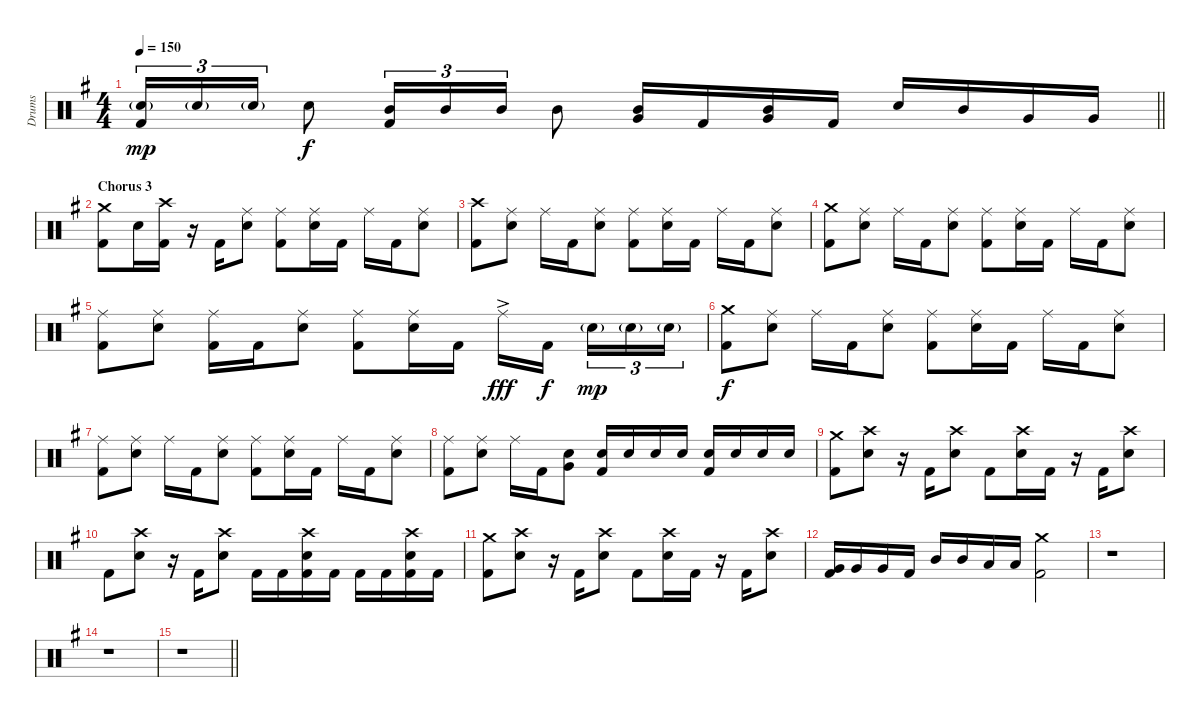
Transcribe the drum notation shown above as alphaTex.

\track ("Drums" "Drums") {instrument percussion}
\staff {score}
\articulation defaults
\ts (4 4)
\tempo 150
\clef neutral
\barLineRight lightlight
\ks eminor
("Electric Snare (hit)"{g} "Kick (hit) 2").16{tu (3 2) dy mp} "Electric Snare (hit)"{g}.16{tu (3 2)} "Electric Snare (hit)"{g}.16{tu (3 2)} "Electric Snare (hit)".8{dy f} ("Mid Tom (hit)" "Kick (hit) 2").16{tu (3 2)} "Mid Tom (hit)".16{tu (3 2)} "Mid Tom (hit)".16{tu (3 2)} "Mid Tom (hit)".8 ("Mid Tom (hit)" "Very Low Tom (hit)").16 "Kick (hit) 2".16 ("Mid Tom (hit)" "Very Low Tom (hit)").16 "Kick (hit) 2".16 "Electric Snare (hit)".16 "Mid Tom (hit)".16 "Very Low Tom (hit)".16 "Very Low Tom (hit)".16 |
\section ("" "Chorus 3")
("Crash medium (hit)" "Kick (hit) 2").8 "Electric Snare (hit)".16 ("Crash high (hit)" "Kick (hit) 2").16 r.16 "Kick (hit) 2".16 ("Ride (middle)" "Electric Snare (hit)").8 ("Ride (middle)" "Kick (hit) 2").8 ("Ride (middle)" "Electric Snare (hit)").16 "Kick (hit) 2".16 "Ride (middle)".16 "Kick (hit) 2".16 ("Ride (middle)" "Electric Snare (hit)").8 |
("Crash high (hit)" "Kick (hit) 2").8 ("Ride (middle)" "Electric Snare (hit)").8 "Ride (middle)".16 "Kick (hit) 2".16 ("Ride (middle)" "Electric Snare (hit)").8 ("Ride (middle)" "Kick (hit) 2").8 ("Ride (middle)" "Electric Snare (hit)").16 "Kick (hit) 2".16 "Ride (middle)".16 "Kick (hit) 2".16 ("Ride (middle)" "Electric Snare (hit)").8 |
("Crash medium (hit)" "Kick (hit) 2").8 ("Ride (middle)" "Electric Snare (hit)").8 "Ride (middle)".16 "Kick (hit) 2".16 ("Ride (middle)" "Electric Snare (hit)").8 ("Ride (middle)" "Kick (hit) 2").8 ("Ride (middle)" "Electric Snare (hit)").16 "Kick (hit) 2".16 "Ride (middle)".16 "Kick (hit) 2".16 ("Ride (middle)" "Electric Snare (hit)").8 |
("Ride (middle)" "Kick (hit) 2").8 ("Ride (middle)" "Electric Snare (hit)").8 ("Ride (middle)" "Kick (hit) 2").16 "Kick (hit) 2".16 ("Ride (middle)" "Electric Snare (hit)").8 ("Ride (middle)" "Kick (hit) 2").8 ("Ride (middle)" "Electric Snare (hit)").16 "Kick (hit) 2".16 "Ride (middle)"{ac}.16{dy fff} "Kick (hit) 2".16{dy f} "Electric Snare (hit)"{g}.16{tu (3 2) dy mp} "Electric Snare (hit)"{g}.16{tu (3 2)} "Electric Snare (hit)"{g}.16{tu (3 2)} |
("Crash medium (hit)" "Kick (hit) 2").8{dy f} ("Ride (middle)" "Electric Snare (hit)").8 "Ride (middle)".16 "Kick (hit) 2".16 ("Ride (middle)" "Electric Snare (hit)").8 ("Ride (middle)" "Kick (hit) 2").8 ("Ride (middle)" "Electric Snare (hit)").16 "Kick (hit) 2".16 "Ride (middle)".16 "Kick (hit) 2".16 ("Ride (middle)" "Electric Snare (hit)").8 |
("Ride (middle)" "Kick (hit) 2").8 ("Ride (middle)" "Electric Snare (hit)").8 "Ride (middle)".16 "Kick (hit) 2".16 ("Ride (middle)" "Electric Snare (hit)").8 ("Ride (middle)" "Kick (hit) 2").8 ("Ride (middle)" "Electric Snare (hit)").16 "Kick (hit) 2".16 "Ride (middle)".16 "Kick (hit) 2".16 ("Ride (middle)" "Electric Snare (hit)").8 |
("Ride (middle)" "Kick (hit) 2").8 ("Ride (middle)" "Electric Snare (hit)").8 "Ride (middle)".16 "Kick (hit) 2".16 ("Electric Snare (hit)" "Very Low Tom (hit)").8 ("Electric Snare (hit)" "Kick (hit) 2").16 "Electric Snare (hit)".16 "Electric Snare (hit)".16 "Electric Snare (hit)".16 ("Electric Snare (hit)" "Kick (hit) 2").16 "Electric Snare (hit)".16 "Electric Snare (hit)".16 "Electric Snare (hit)".16 |
("Crash medium (hit)" "Kick (hit) 2").8 ("Crash high (hit)" "Electric Snare (hit)").8 r.16 "Kick (hit) 2".16 ("Crash high (hit)" "Electric Snare (hit)").8 "Kick (hit) 2".8 ("Crash high (hit)" "Electric Snare (hit)").16 "Kick (hit) 2".16 r.16 "Kick (hit) 2".16 ("Crash high (hit)" "Electric Snare (hit)").8 |
"Kick (hit) 2".8 ("Crash high (hit)" "Electric Snare (hit)").8 r.16 "Kick (hit) 2".16 ("Crash high (hit)" "Electric Snare (hit)").8 "Kick (hit) 2".16 "Kick (hit) 2".16 ("Crash high (hit)" "Electric Snare (hit)" "Kick (hit) 2").16 "Kick (hit) 2".16 "Kick (hit) 2".16 "Kick (hit) 2".16 ("Crash high (hit)" "Electric Snare (hit)" "Kick (hit) 2").16 "Kick (hit) 2".16 |
("Crash medium (hit)" "Kick (hit) 2").8 ("Crash high (hit)" "Electric Snare (hit)").8 r.16 "Kick (hit) 2".16 ("Crash high (hit)" "Electric Snare (hit)").8 "Kick (hit) 2".8 ("Crash high (hit)" "Electric Snare (hit)").16 "Kick (hit) 2".16 r.16 "Kick (hit) 2".16 ("Crash high (hit)" "Electric Snare (hit)").8 |
("Very Low Tom (hit)" "Kick (hit) 2").16 "Very Low Tom (hit)".16 "Very Low Tom (hit)".16 "Kick (hit) 2".16 "Mid Tom (hit)".16 "Mid Tom (hit)".16 "Low Tom (hit)".16 "Low Tom (hit)".16 ("Crash medium (hit)" "Kick (hit) 2").2 |
r.1 |
r.1 |
\barLineRight lightlight
r.1
